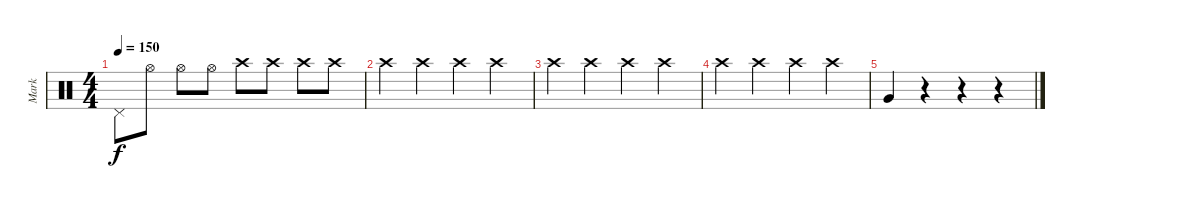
\track ("Mark" "Mark") {instrument percussion}
\staff {score}
\articulation defaults
\ts (4 4)
\tempo 150
\clef neutral
\ks c "Pedal Hi-Hat (hit)".8{dy f} "Hi-Hat (open)".8 "Hi-Hat (open)".8 "Hi-Hat (open)".8 "Crash high (hit)".8 "Crash high (hit)".8 "Crash high (hit)".8 "Crash high (hit)".8
|
"Crash high (hit)".4 "Crash high (hit)".4 "Crash high (hit)".4 "Crash high (hit)".4 |
"Crash high (hit)".4 "Crash high (hit)".4 "Crash high (hit)".4 "Crash high (hit)".4 |
"Crash high (hit)".4 "Crash high (hit)".4 "Crash high (hit)".4 "Crash high (hit)".4 |
"Very Low Tom (hit)".4 r.4 r.4 r.4
